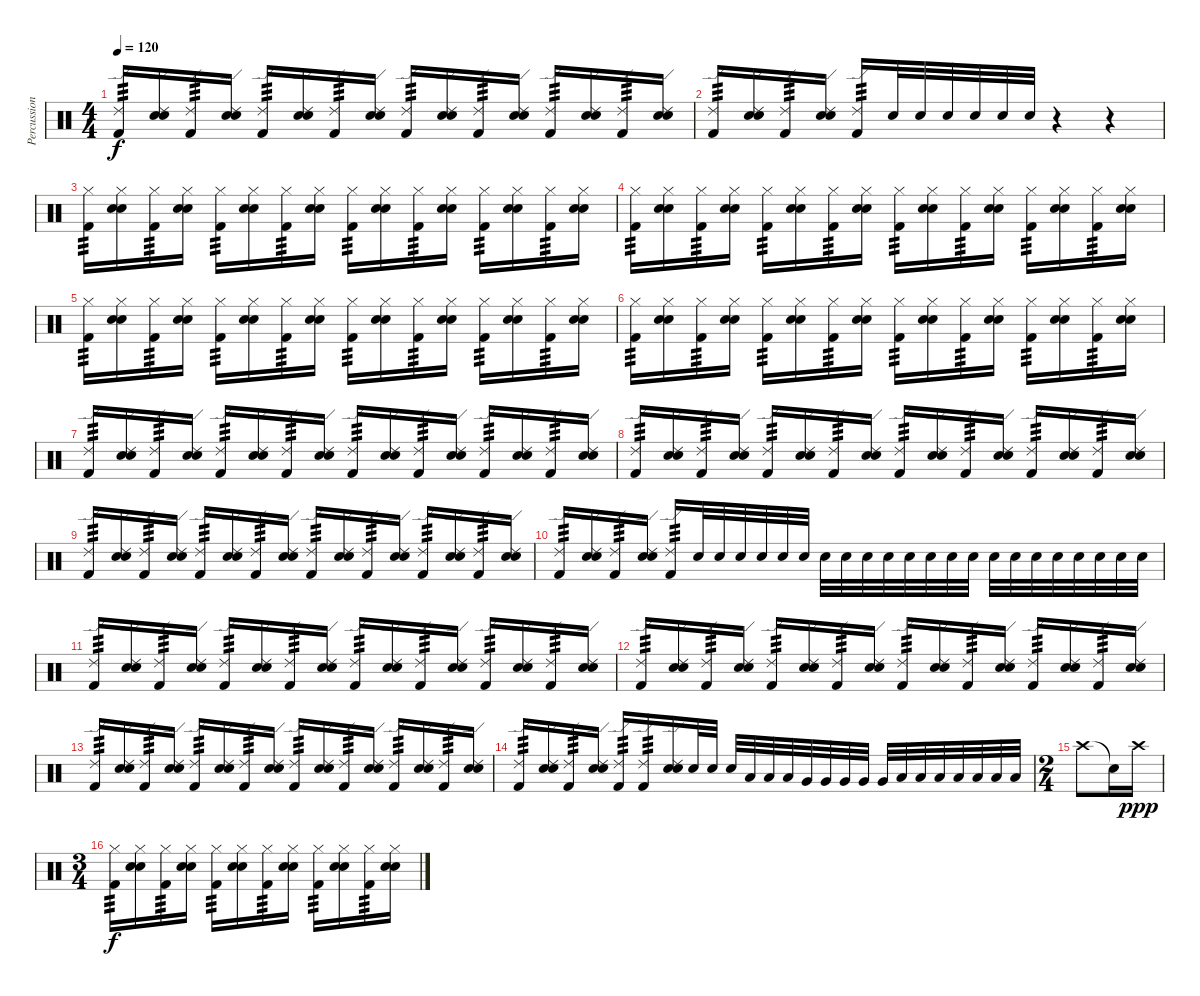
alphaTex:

\track ("Percussion" "Percussion") {instrument percussion}
\staff {score}
\articulation defaults
\ts (4 4)
\tempo 120
\clef neutral
\ks c
("Ride (edge) 2" "Kick (hit) 2").16{tp 3 dy f} ("Ride (edge) 2" "Snare (hit) 2" "Electric Snare (hit)").16 ("Ride (edge) 2" "Kick (hit) 2").16{tp 3} ("Ride (edge) 2" "Snare (hit) 2" "Electric Snare (hit)").16 ("Ride (edge) 2" "Kick (hit) 2").16{tp 3} ("Ride (edge) 2" "Snare (hit) 2" "Electric Snare (hit)").16 ("Ride (edge) 2" "Kick (hit) 2").16{tp 3} ("Ride (edge) 2" "Snare (hit) 2" "Electric Snare (hit)").16 ("Ride (edge) 2" "Kick (hit) 2").16{tp 3} ("Ride (edge) 2" "Snare (hit) 2" "Electric Snare (hit)").16 ("Ride (edge) 2" "Kick (hit) 2").16{tp 3} ("Ride (edge) 2" "Snare (hit) 2" "Electric Snare (hit)").16 ("Ride (edge) 2" "Kick (hit) 2").16{tp 3} ("Ride (edge) 2" "Snare (hit) 2" "Electric Snare (hit)").16 ("Ride (edge) 2" "Kick (hit) 2").16{tp 3} ("Ride (edge) 2" "Snare (hit) 2" "Electric Snare (hit)").16 |
("Ride (edge) 2" "Kick (hit) 2").16{tp 3} ("Ride (edge) 2" "Snare (hit) 2" "Electric Snare (hit)").16 ("Ride (edge) 2" "Kick (hit) 2").16{tp 3} ("Ride (edge) 2" "Snare (hit) 2" "Electric Snare (hit)").16 ("Ride (edge) 2" "Kick (hit) 2").16{tp 3} "Electric Snare (hit)".32 "Electric Snare (hit)".32 "Electric Snare (hit)".32 "Electric Snare (hit)".32 "Electric Snare (hit)".32 "Electric Snare (hit)".32 r.4 r.4 |
("Hi-Hat (closed)" "Kick (hit) 2").16{tp 3} ("Hi-Hat (closed)" "Snare (hit) 2" "Electric Snare (hit)").16 ("Hi-Hat (closed)" "Kick (hit) 2").16{tp 3} ("Hi-Hat (closed)" "Snare (hit) 2" "Electric Snare (hit)").16 ("Hi-Hat (closed)" "Kick (hit) 2").16{tp 3} ("Hi-Hat (closed)" "Snare (hit) 2" "Electric Snare (hit)").16 ("Hi-Hat (closed)" "Kick (hit) 2").16{tp 3} ("Hi-Hat (closed)" "Snare (hit) 2" "Electric Snare (hit)").16 ("Hi-Hat (closed)" "Kick (hit) 2").16{tp 3} ("Hi-Hat (closed)" "Snare (hit) 2" "Electric Snare (hit)").16 ("Hi-Hat (closed)" "Kick (hit) 2").16{tp 3} ("Hi-Hat (closed)" "Snare (hit) 2" "Electric Snare (hit)").16 ("Hi-Hat (closed)" "Kick (hit) 2").16{tp 3} ("Hi-Hat (closed)" "Snare (hit) 2" "Electric Snare (hit)").16 ("Hi-Hat (closed)" "Kick (hit) 2").16{tp 3} ("Hi-Hat (closed)" "Snare (hit) 2" "Electric Snare (hit)").16 |
("Hi-Hat (closed)" "Kick (hit) 2").16{tp 3} ("Hi-Hat (closed)" "Snare (hit) 2" "Electric Snare (hit)").16 ("Hi-Hat (closed)" "Kick (hit) 2").16{tp 3} ("Hi-Hat (closed)" "Snare (hit) 2" "Electric Snare (hit)").16 ("Hi-Hat (closed)" "Kick (hit) 2").16{tp 3} ("Hi-Hat (closed)" "Snare (hit) 2" "Electric Snare (hit)").16 ("Hi-Hat (closed)" "Kick (hit) 2").16{tp 3} ("Hi-Hat (closed)" "Snare (hit) 2" "Electric Snare (hit)").16 ("Hi-Hat (closed)" "Kick (hit) 2").16{tp 3} ("Hi-Hat (closed)" "Snare (hit) 2" "Electric Snare (hit)").16 ("Hi-Hat (closed)" "Kick (hit) 2").16{tp 3} ("Hi-Hat (closed)" "Snare (hit) 2" "Electric Snare (hit)").16 ("Hi-Hat (closed)" "Kick (hit) 2").16{tp 3} ("Hi-Hat (closed)" "Snare (hit) 2" "Electric Snare (hit)").16 ("Hi-Hat (closed)" "Kick (hit) 2").16{tp 3} ("Hi-Hat (closed)" "Snare (hit) 2" "Electric Snare (hit)").16 |
("Hi-Hat (closed)" "Kick (hit) 2").16{tp 3} ("Hi-Hat (closed)" "Snare (hit) 2" "Electric Snare (hit)").16 ("Hi-Hat (closed)" "Kick (hit) 2").16{tp 3} ("Hi-Hat (closed)" "Snare (hit) 2" "Electric Snare (hit)").16 ("Hi-Hat (closed)" "Kick (hit) 2").16{tp 3} ("Hi-Hat (closed)" "Snare (hit) 2" "Electric Snare (hit)").16 ("Hi-Hat (closed)" "Kick (hit) 2").16{tp 3} ("Hi-Hat (closed)" "Snare (hit) 2" "Electric Snare (hit)").16 ("Hi-Hat (closed)" "Kick (hit) 2").16{tp 3} ("Hi-Hat (closed)" "Snare (hit) 2" "Electric Snare (hit)").16 ("Hi-Hat (closed)" "Kick (hit) 2").16{tp 3} ("Hi-Hat (closed)" "Snare (hit) 2" "Electric Snare (hit)").16 ("Hi-Hat (closed)" "Kick (hit) 2").16{tp 3} ("Hi-Hat (closed)" "Snare (hit) 2" "Electric Snare (hit)").16 ("Hi-Hat (closed)" "Kick (hit) 2").16{tp 3} ("Hi-Hat (closed)" "Snare (hit) 2" "Electric Snare (hit)").16 |
("Hi-Hat (closed)" "Kick (hit) 2").16{tp 3} ("Hi-Hat (closed)" "Snare (hit) 2" "Electric Snare (hit)").16 ("Hi-Hat (closed)" "Kick (hit) 2").16{tp 3} ("Hi-Hat (closed)" "Snare (hit) 2" "Electric Snare (hit)").16 ("Hi-Hat (closed)" "Kick (hit) 2").16{tp 3} ("Hi-Hat (closed)" "Snare (hit) 2" "Electric Snare (hit)").16 ("Hi-Hat (closed)" "Kick (hit) 2").16{tp 3} ("Hi-Hat (closed)" "Snare (hit) 2" "Electric Snare (hit)").16 ("Hi-Hat (closed)" "Kick (hit) 2").16{tp 3} ("Hi-Hat (closed)" "Snare (hit) 2" "Electric Snare (hit)").16 ("Hi-Hat (closed)" "Kick (hit) 2").16{tp 3} ("Hi-Hat (closed)" "Snare (hit) 2" "Electric Snare (hit)").16 ("Hi-Hat (closed)" "Kick (hit) 2").16{tp 3} ("Hi-Hat (closed)" "Snare (hit) 2" "Electric Snare (hit)").16 ("Hi-Hat (closed)" "Kick (hit) 2").16{tp 3} ("Hi-Hat (closed)" "Snare (hit) 2" "Electric Snare (hit)").16 |
("Ride (edge) 2" "Kick (hit) 2").16{tp 3} ("Ride (edge) 2" "Snare (hit) 2" "Electric Snare (hit)").16 ("Ride (edge) 2" "Kick (hit) 2").16{tp 3} ("Ride (edge) 2" "Snare (hit) 2" "Electric Snare (hit)").16 ("Ride (edge) 2" "Kick (hit) 2").16{tp 3} ("Ride (edge) 2" "Snare (hit) 2" "Electric Snare (hit)").16 ("Ride (edge) 2" "Kick (hit) 2").16{tp 3} ("Ride (edge) 2" "Snare (hit) 2" "Electric Snare (hit)").16 ("Ride (edge) 2" "Kick (hit) 2").16{tp 3} ("Ride (edge) 2" "Snare (hit) 2" "Electric Snare (hit)").16 ("Ride (edge) 2" "Kick (hit) 2").16{tp 3} ("Ride (edge) 2" "Snare (hit) 2" "Electric Snare (hit)").16 ("Ride (edge) 2" "Kick (hit) 2").16{tp 3} ("Ride (edge) 2" "Snare (hit) 2" "Electric Snare (hit)").16 ("Ride (edge) 2" "Kick (hit) 2").16{tp 3} ("Ride (edge) 2" "Snare (hit) 2" "Electric Snare (hit)").16 |
("Ride (edge) 2" "Kick (hit) 2").16{tp 3} ("Ride (edge) 2" "Snare (hit) 2" "Electric Snare (hit)").16 ("Ride (edge) 2" "Kick (hit) 2").16{tp 3} ("Ride (edge) 2" "Snare (hit) 2" "Electric Snare (hit)").16 ("Ride (edge) 2" "Kick (hit) 2").16{tp 3} ("Ride (edge) 2" "Snare (hit) 2" "Electric Snare (hit)").16 ("Ride (edge) 2" "Kick (hit) 2").16{tp 3} ("Ride (edge) 2" "Snare (hit) 2" "Electric Snare (hit)").16 ("Ride (edge) 2" "Kick (hit) 2").16{tp 3} ("Ride (edge) 2" "Snare (hit) 2" "Electric Snare (hit)").16 ("Ride (edge) 2" "Kick (hit) 2").16{tp 3} ("Ride (edge) 2" "Snare (hit) 2" "Electric Snare (hit)").16 ("Ride (edge) 2" "Kick (hit) 2").16{tp 3} ("Ride (edge) 2" "Snare (hit) 2" "Electric Snare (hit)").16 ("Ride (edge) 2" "Kick (hit) 2").16{tp 3} ("Ride (edge) 2" "Snare (hit) 2" "Electric Snare (hit)").16 |
("Ride (edge) 2" "Kick (hit) 2").16{tp 3} ("Ride (edge) 2" "Snare (hit) 2" "Electric Snare (hit)").16 ("Ride (edge) 2" "Kick (hit) 2").16{tp 3} ("Ride (edge) 2" "Snare (hit) 2" "Electric Snare (hit)").16 ("Ride (edge) 2" "Kick (hit) 2").16{tp 3} ("Ride (edge) 2" "Snare (hit) 2" "Electric Snare (hit)").16 ("Ride (edge) 2" "Kick (hit) 2").16{tp 3} ("Ride (edge) 2" "Snare (hit) 2" "Electric Snare (hit)").16 ("Ride (edge) 2" "Kick (hit) 2").16{tp 3} ("Ride (edge) 2" "Snare (hit) 2" "Electric Snare (hit)").16 ("Ride (edge) 2" "Kick (hit) 2").16{tp 3} ("Ride (edge) 2" "Snare (hit) 2" "Electric Snare (hit)").16 ("Ride (edge) 2" "Kick (hit) 2").16{tp 3} ("Ride (edge) 2" "Snare (hit) 2" "Electric Snare (hit)").16 ("Ride (edge) 2" "Kick (hit) 2").16{tp 3} ("Ride (edge) 2" "Snare (hit) 2" "Electric Snare (hit)").16 |
("Ride (edge) 2" "Kick (hit) 2").16{tp 3} ("Ride (edge) 2" "Snare (hit) 2" "Electric Snare (hit)").16 ("Ride (edge) 2" "Kick (hit) 2").16{tp 3} ("Ride (edge) 2" "Snare (hit) 2" "Electric Snare (hit)").16 ("Ride (edge) 2" "Kick (hit) 2").16{tp 3} "Electric Snare (hit)".32 "Electric Snare (hit)".32 "Electric Snare (hit)".32 "Electric Snare (hit)".32 "Electric Snare (hit)".32 "Electric Snare (hit)".32 "Electric Snare (hit)".32 "Electric Snare (hit)".32 "Electric Snare (hit)".32 "Electric Snare (hit)".32 "Electric Snare (hit)".32 "Electric Snare (hit)".32 "Electric Snare (hit)".32 "Electric Snare (hit)".32 "Electric Snare (hit)".32 "Electric Snare (hit)".32 "Electric Snare (hit)".32 "Electric Snare (hit)".32 "Electric Snare (hit)".32 "Electric Snare (hit)".32 "Electric Snare (hit)".32 "Electric Snare (hit)".32 |
("Ride (edge) 2" "Kick (hit) 2").16{tp 3} ("Ride (edge) 2" "Snare (hit) 2" "Electric Snare (hit)").16 ("Ride (edge) 2" "Kick (hit) 2").16{tp 3} ("Ride (edge) 2" "Snare (hit) 2" "Electric Snare (hit)").16 ("Ride (edge) 2" "Kick (hit) 2").16{tp 3} ("Ride (edge) 2" "Snare (hit) 2" "Electric Snare (hit)").16 ("Ride (edge) 2" "Kick (hit) 2").16{tp 3} ("Ride (edge) 2" "Snare (hit) 2" "Electric Snare (hit)").16 ("Ride (edge) 2" "Kick (hit) 2").16{tp 3} ("Ride (edge) 2" "Snare (hit) 2" "Electric Snare (hit)").16 ("Ride (edge) 2" "Kick (hit) 2").16{tp 3} ("Ride (edge) 2" "Snare (hit) 2" "Electric Snare (hit)").16 ("Ride (edge) 2" "Kick (hit) 2").16{tp 3} ("Ride (edge) 2" "Snare (hit) 2" "Electric Snare (hit)").16 ("Ride (edge) 2" "Kick (hit) 2").16{tp 3} ("Ride (edge) 2" "Snare (hit) 2" "Electric Snare (hit)").16 |
("Ride (edge) 2" "Kick (hit) 2").16{tp 3} ("Ride (edge) 2" "Snare (hit) 2" "Electric Snare (hit)").16 ("Ride (edge) 2" "Kick (hit) 2").16{tp 3} ("Ride (edge) 2" "Snare (hit) 2" "Electric Snare (hit)").16 ("Ride (edge) 2" "Kick (hit) 2").16{tp 3} ("Ride (edge) 2" "Snare (hit) 2" "Electric Snare (hit)").16 ("Ride (edge) 2" "Kick (hit) 2").16{tp 3} ("Ride (edge) 2" "Snare (hit) 2" "Electric Snare (hit)").16 ("Ride (edge) 2" "Kick (hit) 2").16{tp 3} ("Ride (edge) 2" "Snare (hit) 2" "Electric Snare (hit)").16 ("Ride (edge) 2" "Kick (hit) 2").16{tp 3} ("Ride (edge) 2" "Snare (hit) 2" "Electric Snare (hit)").16 ("Ride (edge) 2" "Kick (hit) 2").16{tp 3} ("Ride (edge) 2" "Snare (hit) 2" "Electric Snare (hit)").16 ("Ride (edge) 2" "Kick (hit) 2").16{tp 3} ("Ride (edge) 2" "Snare (hit) 2" "Electric Snare (hit)").16 |
("Ride (edge) 2" "Kick (hit) 2").16{tp 3} ("Ride (edge) 2" "Snare (hit) 2" "Electric Snare (hit)").16 ("Ride (edge) 2" "Kick (hit) 2").16{tp 3} ("Ride (edge) 2" "Snare (hit) 2" "Electric Snare (hit)").16 ("Ride (edge) 2" "Kick (hit) 2").16{tp 3} ("Ride (edge) 2" "Snare (hit) 2" "Electric Snare (hit)").16 ("Ride (edge) 2" "Kick (hit) 2").16{tp 3} ("Ride (edge) 2" "Snare (hit) 2" "Electric Snare (hit)").16 ("Ride (edge) 2" "Kick (hit) 2").16{tp 3} ("Ride (edge) 2" "Snare (hit) 2" "Electric Snare (hit)").16 ("Ride (edge) 2" "Kick (hit) 2").16{tp 3} ("Ride (edge) 2" "Snare (hit) 2" "Electric Snare (hit)").16 ("Ride (edge) 2" "Kick (hit) 2").16{tp 3} ("Ride (edge) 2" "Snare (hit) 2" "Electric Snare (hit)").16 ("Ride (edge) 2" "Kick (hit) 2").16{tp 3} ("Ride (edge) 2" "Snare (hit) 2" "Electric Snare (hit)").16 |
("Ride (edge) 2" "Kick (hit) 2").16{tp 3} ("Ride (edge) 2" "Snare (hit) 2" "Electric Snare (hit)").16 ("Ride (edge) 2" "Kick (hit) 2").16{tp 3} ("Ride (edge) 2" "Snare (hit) 2" "Electric Snare (hit)").16 ("Ride (edge) 2" "Kick (hit) 2").16{tp 3} ("Ride (edge) 2" "Kick (hit) 2").16{tp 3} ("Ride (edge) 2" "Snare (hit) 2" "Electric Snare (hit)").16 "Electric Snare (hit)".32 "Electric Snare (hit)".32 "Electric Snare (hit)".32 "Low Tom (hit)".32 "Low Tom (hit)".32 "Low Tom (hit)".32 "Very Low Tom (hit)".32 "Very Low Tom (hit)".32 "Very Low Tom (hit)".32 "Very Low Tom (hit)".32 "Very Low Tom (hit)".32 "Low Floor Tom (hit)".32 "Low Floor Tom (hit)".32 "Low Floor Tom (hit)".32 "Low Floor Tom (hit)".32 "Low Floor Tom (hit)".32 "Low Floor Tom (hit)".32 "Low Floor Tom (hit)".32 |
\ts (2 4)
"Crash high (hit)".8 "Snare (hit)"{t}.16 "Crash high (hit)".16{dy ppp} |
\ts (3 4)
("Hi-Hat (closed)" "Kick (hit) 2").16{tp 3 dy f} ("Hi-Hat (closed)" "Snare (hit) 2" "Electric Snare (hit)").16 ("Hi-Hat (closed)" "Kick (hit) 2").16{tp 3} ("Hi-Hat (closed)" "Snare (hit) 2" "Electric Snare (hit)").16 ("Hi-Hat (closed)" "Kick (hit) 2").16{tp 3} ("Hi-Hat (closed)" "Snare (hit) 2" "Electric Snare (hit)").16 ("Hi-Hat (closed)" "Kick (hit) 2").16{tp 3} ("Hi-Hat (closed)" "Snare (hit) 2" "Electric Snare (hit)").16 ("Hi-Hat (closed)" "Kick (hit) 2").16{tp 3} ("Hi-Hat (closed)" "Snare (hit) 2" "Electric Snare (hit)").16 ("Hi-Hat (closed)" "Kick (hit) 2").16{tp 3} ("Hi-Hat (closed)" "Snare (hit) 2" "Electric Snare (hit)").16
